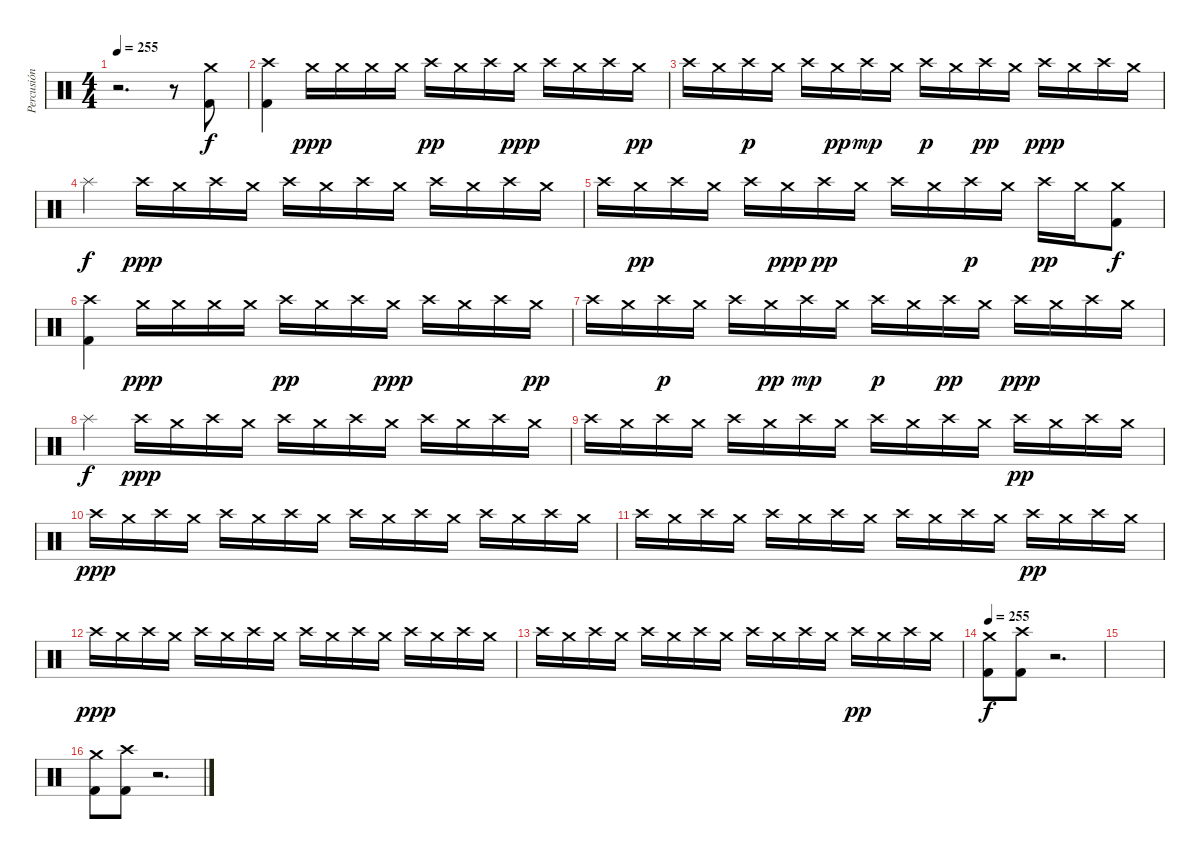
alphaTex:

\track ("Percusión" "Percusión") {instrument percussion}
\staff {score}
\articulation defaults
\ts (4 4)
\tempo 255
\tempo 190
\tempo 255
\clef neutral
\ks c
r.2{d dy f volume 11} r.8 ("Kick (hit) 2" "Crash medium (hit)").8 |
("Kick (hit) 2" "Crash high (hit)").4 "Crash medium (hit)".16{dy ppp} "Crash medium (hit)".16 "Crash medium (hit)".16 "Crash medium (hit)".16 "Crash high (hit)".16{dy pp} "Crash medium (hit)".16 "Crash high (hit)".16 "Crash medium (hit)".16{dy ppp} "Crash high (hit)".16 "Crash medium (hit)".16 "Crash high (hit)".16 "Crash medium (hit)".16{dy pp} |
"Crash high (hit)".16 "Crash medium (hit)".16 "Crash high (hit)".16{dy p} "Crash medium (hit)".16 "Crash high (hit)".16 "Crash medium (hit)".16{dy pp} "Crash high (hit)".16{dy mp} "Crash medium (hit)".16 "Crash high (hit)".16{dy p} "Crash medium (hit)".16 "Crash high (hit)".16{dy pp} "Crash medium (hit)".16 "Crash high (hit)".16{dy ppp} "Crash medium (hit)".16 "Crash high (hit)".16 "Crash medium (hit)".16 |
"Splash (hit)".4{dy f} "Crash high (hit)".16{dy ppp} "Crash medium (hit)".16 "Crash high (hit)".16 "Crash medium (hit)".16 "Crash high (hit)".16 "Crash medium (hit)".16 "Crash high (hit)".16 "Crash medium (hit)".16 "Crash high (hit)".16 "Crash medium (hit)".16 "Crash high (hit)".16 "Crash medium (hit)".16 |
"Crash high (hit)".16 "Crash medium (hit)".16{dy pp} "Crash high (hit)".16 "Crash medium (hit)".16 "Crash high (hit)".16 "Crash medium (hit)".16{dy ppp} "Crash high (hit)".16{dy pp} "Crash medium (hit)".16 "Crash high (hit)".16 "Crash medium (hit)".16 "Crash high (hit)".16{dy p} "Crash medium (hit)".16 "Crash high (hit)".16{dy pp} "Crash medium (hit)".16 ("Kick (hit) 2" "Crash medium (hit)").8{dy f} |
("Kick (hit) 2" "Crash high (hit)").4 "Crash medium (hit)".16{dy ppp} "Crash medium (hit)".16 "Crash medium (hit)".16 "Crash medium (hit)".16 "Crash high (hit)".16{dy pp} "Crash medium (hit)".16 "Crash high (hit)".16 "Crash medium (hit)".16{dy ppp} "Crash high (hit)".16 "Crash medium (hit)".16 "Crash high (hit)".16 "Crash medium (hit)".16{dy pp} |
"Crash high (hit)".16 "Crash medium (hit)".16 "Crash high (hit)".16{dy p} "Crash medium (hit)".16 "Crash high (hit)".16 "Crash medium (hit)".16{dy pp} "Crash high (hit)".16{dy mp} "Crash medium (hit)".16 "Crash high (hit)".16{dy p} "Crash medium (hit)".16 "Crash high (hit)".16{dy pp} "Crash medium (hit)".16 "Crash high (hit)".16{dy ppp} "Crash medium (hit)".16 "Crash high (hit)".16 "Crash medium (hit)".16 |
"Splash (hit)".4{dy f} "Crash high (hit)".16{dy ppp} "Crash medium (hit)".16 "Crash high (hit)".16 "Crash medium (hit)".16 "Crash high (hit)".16 "Crash medium (hit)".16 "Crash high (hit)".16 "Crash medium (hit)".16 "Crash high (hit)".16 "Crash medium (hit)".16 "Crash high (hit)".16 "Crash medium (hit)".16 |
"Crash high (hit)".16 "Crash medium (hit)".16 "Crash high (hit)".16 "Crash medium (hit)".16 "Crash high (hit)".16 "Crash medium (hit)".16 "Crash high (hit)".16 "Crash medium (hit)".16 "Crash high (hit)".16 "Crash medium (hit)".16 "Crash high (hit)".16 "Crash medium (hit)".16 "Crash high (hit)".16{dy pp} "Crash medium (hit)".16 "Crash high (hit)".16 "Crash medium (hit)".16 |
"Crash high (hit)".16{dy ppp} "Crash medium (hit)".16 "Crash high (hit)".16 "Crash medium (hit)".16 "Crash high (hit)".16 "Crash medium (hit)".16 "Crash high (hit)".16 "Crash medium (hit)".16 "Crash high (hit)".16 "Crash medium (hit)".16 "Crash high (hit)".16 "Crash medium (hit)".16 "Crash high (hit)".16 "Crash medium (hit)".16 "Crash high (hit)".16 "Crash medium (hit)".16 |
"Crash high (hit)".16 "Crash medium (hit)".16 "Crash high (hit)".16 "Crash medium (hit)".16 "Crash high (hit)".16 "Crash medium (hit)".16 "Crash high (hit)".16 "Crash medium (hit)".16 "Crash high (hit)".16 "Crash medium (hit)".16 "Crash high (hit)".16 "Crash medium (hit)".16 "Crash high (hit)".16{dy pp} "Crash medium (hit)".16 "Crash high (hit)".16 "Crash medium (hit)".16 |
"Crash high (hit)".16{dy ppp} "Crash medium (hit)".16 "Crash high (hit)".16 "Crash medium (hit)".16 "Crash high (hit)".16 "Crash medium (hit)".16 "Crash high (hit)".16 "Crash medium (hit)".16 "Crash high (hit)".16 "Crash medium (hit)".16 "Crash high (hit)".16 "Crash medium (hit)".16 "Crash high (hit)".16 "Crash medium (hit)".16 "Crash high (hit)".16 "Crash medium (hit)".16 |
"Crash high (hit)".16 "Crash medium (hit)".16 "Crash high (hit)".16 "Crash medium (hit)".16 "Crash high (hit)".16 "Crash medium (hit)".16 "Crash high (hit)".16 "Crash medium (hit)".16 "Crash high (hit)".16 "Crash medium (hit)".16 "Crash high (hit)".16 "Crash medium (hit)".16 "Crash high (hit)".16{dy pp} "Crash medium (hit)".16 "Crash high (hit)".16 "Crash medium (hit)".16 |
\tempo 255
("Kick (hit) 2" "Crash medium (hit)").8{dy f} ("Kick (hit) 2" "Crash high (hit)").8 r.2{d} |
|
("Kick (hit) 2" "Crash medium (hit)").8 ("Kick (hit) 2" "Crash high (hit)").8 r.2{d}
